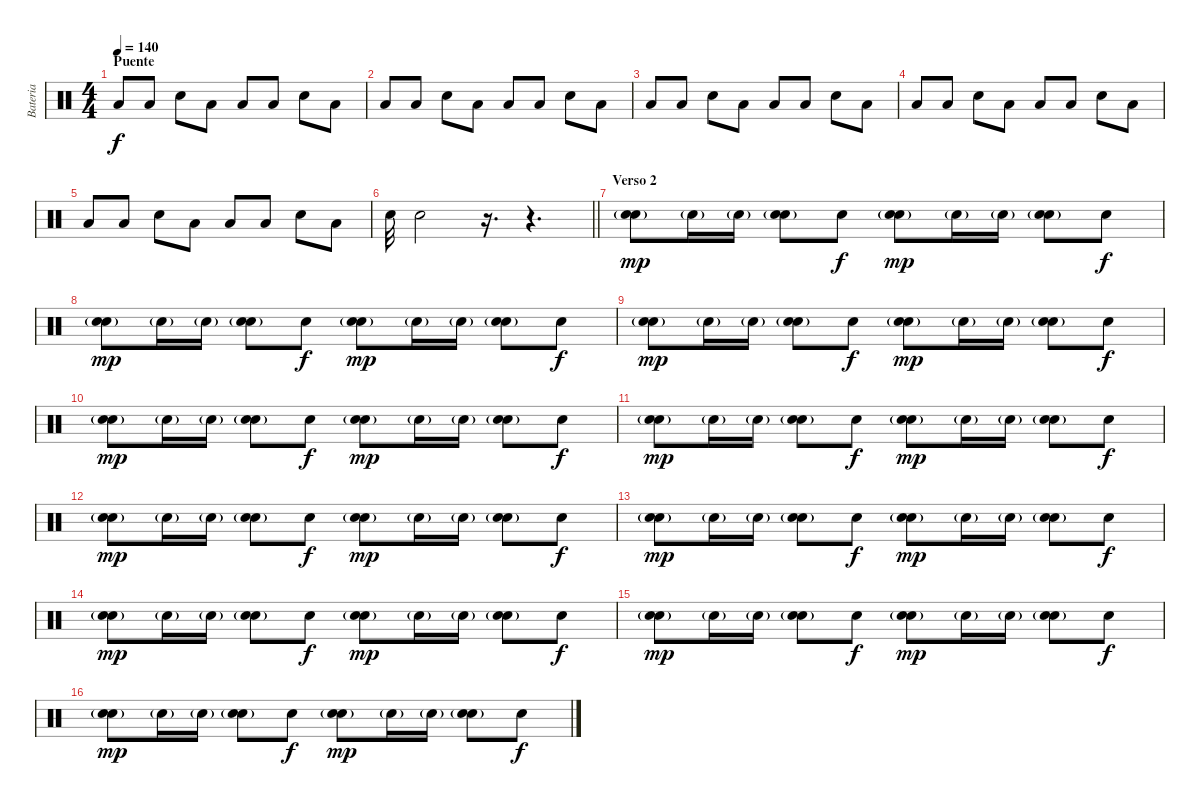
\track ("Bateria" "Bateria") {instrument percussion}
\staff {score}
\articulation defaults
\ts (4 4)
\section ("" "Puente")
\tempo 140
\clef neutral
\ks c "Low Floor Tom (hit)".8{dy f} "Low Floor Tom (hit)".8 "Electric Snare (hit)".8 "Low Floor Tom (hit)".8 "Low Floor Tom (hit)".8 "Low Floor Tom (hit)".8 "Electric Snare (hit)".8 "Low Floor Tom (hit)".8
|
"Low Floor Tom (hit)".8 "Low Floor Tom (hit)".8 "Electric Snare (hit)".8 "Low Floor Tom (hit)".8 "Low Floor Tom (hit)".8 "Low Floor Tom (hit)".8 "Electric Snare (hit)".8 "Low Floor Tom (hit)".8 |
"Low Floor Tom (hit)".8 "Low Floor Tom (hit)".8 "Electric Snare (hit)".8 "Low Floor Tom (hit)".8 "Low Floor Tom (hit)".8 "Low Floor Tom (hit)".8 "Electric Snare (hit)".8 "Low Floor Tom (hit)".8 |
"Low Floor Tom (hit)".8 "Low Floor Tom (hit)".8 "Electric Snare (hit)".8 "Low Floor Tom (hit)".8 "Low Floor Tom (hit)".8 "Low Floor Tom (hit)".8 "Electric Snare (hit)".8 "Low Floor Tom (hit)".8 |
"Low Floor Tom (hit)".8 "Low Floor Tom (hit)".8 "Electric Snare (hit)".8 "Low Floor Tom (hit)".8 "Low Floor Tom (hit)".8 "Low Floor Tom (hit)".8 "Electric Snare (hit)".8 "Low Floor Tom (hit)".8 |
\barLineRight lightlight "Electric Snare (hit)".32 "Electric Snare (hit)".2
r.16{d} r.4{d} |
\section ("" "Verso 2")
("Snare (hit) 2" "Electric Snare (hit)"{g}).8{dy mp} "Electric Snare (hit)"{g}.16 "Electric Snare (hit)"{g}.16 ("Snare (hit) 2" "Electric Snare (hit)"{g}).8 "Electric Snare (hit)".8{dy f} ("Snare (hit) 2" "Electric Snare (hit)"{g}).8{dy mp} "Electric Snare (hit)"{g}.16 "Electric Snare (hit)"{g}.16 ("Snare (hit) 2" "Electric Snare (hit)"{g}).8 "Electric Snare (hit)".8{dy f} |
("Snare (hit) 2" "Electric Snare (hit)"{g}).8{dy mp} "Electric Snare (hit)"{g}.16 "Electric Snare (hit)"{g}.16 ("Snare (hit) 2" "Electric Snare (hit)"{g}).8 "Electric Snare (hit)".8{dy f} ("Snare (hit) 2" "Electric Snare (hit)"{g}).8{dy mp} "Electric Snare (hit)"{g}.16 "Electric Snare (hit)"{g}.16 ("Snare (hit) 2" "Electric Snare (hit)"{g}).8 "Electric Snare (hit)".8{dy f} |
("Snare (hit) 2" "Electric Snare (hit)"{g}).8{dy mp} "Electric Snare (hit)"{g}.16 "Electric Snare (hit)"{g}.16 ("Snare (hit) 2" "Electric Snare (hit)"{g}).8 "Electric Snare (hit)".8{dy f} ("Snare (hit) 2" "Electric Snare (hit)"{g}).8{dy mp} "Electric Snare (hit)"{g}.16 "Electric Snare (hit)"{g}.16 ("Snare (hit) 2" "Electric Snare (hit)"{g}).8 "Electric Snare (hit)".8{dy f} |
("Snare (hit) 2" "Electric Snare (hit)"{g}).8{dy mp} "Electric Snare (hit)"{g}.16 "Electric Snare (hit)"{g}.16 ("Snare (hit) 2" "Electric Snare (hit)"{g}).8 "Electric Snare (hit)".8{dy f} ("Snare (hit) 2" "Electric Snare (hit)"{g}).8{dy mp} "Electric Snare (hit)"{g}.16 "Electric Snare (hit)"{g}.16 ("Snare (hit) 2" "Electric Snare (hit)"{g}).8 "Electric Snare (hit)".8{dy f} |
("Snare (hit) 2" "Electric Snare (hit)"{g}).8{dy mp} "Electric Snare (hit)"{g}.16 "Electric Snare (hit)"{g}.16 ("Snare (hit) 2" "Electric Snare (hit)"{g}).8 "Electric Snare (hit)".8{dy f} ("Snare (hit) 2" "Electric Snare (hit)"{g}).8{dy mp} "Electric Snare (hit)"{g}.16 "Electric Snare (hit)"{g}.16 ("Snare (hit) 2" "Electric Snare (hit)"{g}).8 "Electric Snare (hit)".8{dy f} |
("Snare (hit) 2" "Electric Snare (hit)"{g}).8{dy mp} "Electric Snare (hit)"{g}.16 "Electric Snare (hit)"{g}.16 ("Snare (hit) 2" "Electric Snare (hit)"{g}).8 "Electric Snare (hit)".8{dy f} ("Snare (hit) 2" "Electric Snare (hit)"{g}).8{dy mp} "Electric Snare (hit)"{g}.16 "Electric Snare (hit)"{g}.16 ("Snare (hit) 2" "Electric Snare (hit)"{g}).8 "Electric Snare (hit)".8{dy f} |
("Snare (hit) 2" "Electric Snare (hit)"{g}).8{dy mp} "Electric Snare (hit)"{g}.16 "Electric Snare (hit)"{g}.16 ("Snare (hit) 2" "Electric Snare (hit)"{g}).8 "Electric Snare (hit)".8{dy f} ("Snare (hit) 2" "Electric Snare (hit)"{g}).8{dy mp} "Electric Snare (hit)"{g}.16 "Electric Snare (hit)"{g}.16 ("Snare (hit) 2" "Electric Snare (hit)"{g}).8 "Electric Snare (hit)".8{dy f} |
("Snare (hit) 2" "Electric Snare (hit)"{g}).8{dy mp} "Electric Snare (hit)"{g}.16 "Electric Snare (hit)"{g}.16 ("Snare (hit) 2" "Electric Snare (hit)"{g}).8 "Electric Snare (hit)".8{dy f} ("Snare (hit) 2" "Electric Snare (hit)"{g}).8{dy mp} "Electric Snare (hit)"{g}.16 "Electric Snare (hit)"{g}.16 ("Snare (hit) 2" "Electric Snare (hit)"{g}).8 "Electric Snare (hit)".8{dy f} |
("Snare (hit) 2" "Electric Snare (hit)"{g}).8{dy mp} "Electric Snare (hit)"{g}.16 "Electric Snare (hit)"{g}.16 ("Snare (hit) 2" "Electric Snare (hit)"{g}).8 "Electric Snare (hit)".8{dy f} ("Snare (hit) 2" "Electric Snare (hit)"{g}).8{dy mp} "Electric Snare (hit)"{g}.16 "Electric Snare (hit)"{g}.16 ("Snare (hit) 2" "Electric Snare (hit)"{g}).8 "Electric Snare (hit)".8{dy f} |
("Snare (hit) 2" "Electric Snare (hit)"{g}).8{dy mp} "Electric Snare (hit)"{g}.16 "Electric Snare (hit)"{g}.16 ("Snare (hit) 2" "Electric Snare (hit)"{g}).8 "Electric Snare (hit)".8{dy f} ("Snare (hit) 2" "Electric Snare (hit)"{g}).8{dy mp} "Electric Snare (hit)"{g}.16 "Electric Snare (hit)"{g}.16 ("Snare (hit) 2" "Electric Snare (hit)"{g}).8 "Electric Snare (hit)".8{dy f}
